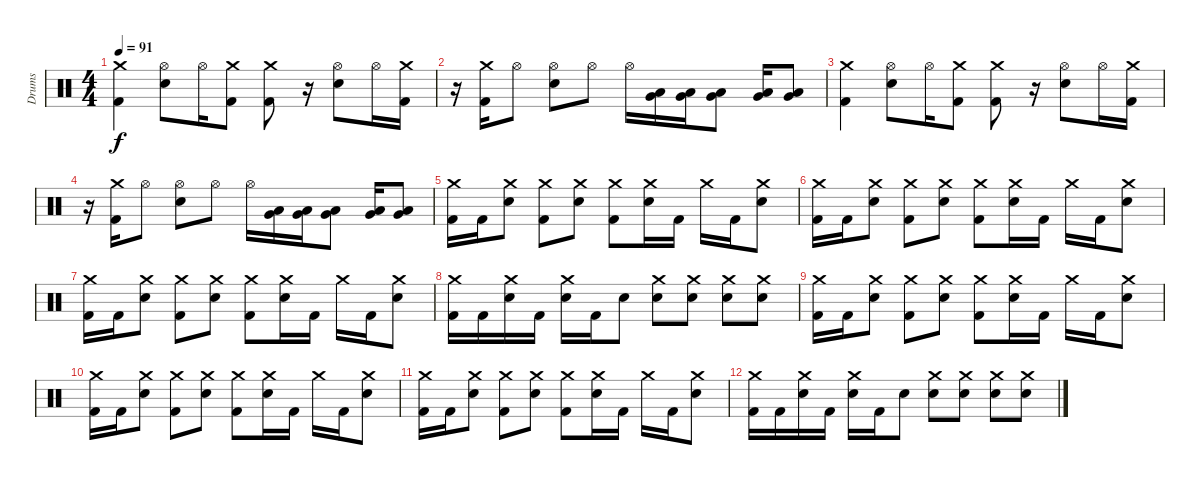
\track ("Drums" "Drums") {instrument percussion}
\staff {score}
\articulation defaults
\ts (4 4)
\tempo 91
\clef neutral
\ks c
("Crash medium (hit)" "Kick (hit) 2").4{dy f} ("Hi-Hat (open)" "Snare (hit) 2").8 "Hi-Hat (open)".16 ("Crash medium (hit)" "Kick (hit) 2").8 ("Crash medium (hit)" "Kick (hit) 2").8 r.16 ("Hi-Hat (open)" "Snare (hit) 2").8 "Hi-Hat (open)".16 ("Crash medium (hit)" "Kick (hit) 2").16 |
r.16 ("Crash medium (hit)" "Kick (hit) 2").16 "Hi-Hat (open)".8 ("Hi-Hat (open)" "Snare (hit) 2").8 "Hi-Hat (open)".8 "Hi-Hat (open)".16 ("Low Tom (hit)" "Very Low Tom (hit)").16 ("Low Tom (hit)" "Very Low Tom (hit)").16 ("Low Tom (hit)" "Very Low Tom (hit)").8 ("Low Tom (hit)" "Very Low Tom (hit)").16 ("Low Tom (hit)" "Very Low Tom (hit)").8 |
("Crash medium (hit)" "Kick (hit) 2").4 ("Hi-Hat (open)" "Snare (hit) 2").8 "Hi-Hat (open)".16 ("Crash medium (hit)" "Kick (hit) 2").8 ("Crash medium (hit)" "Kick (hit) 2").8 r.16 ("Hi-Hat (open)" "Snare (hit) 2").8 "Hi-Hat (open)".16 ("Crash medium (hit)" "Kick (hit) 2").16 |
r.16 ("Crash medium (hit)" "Kick (hit) 2").16 "Hi-Hat (open)".8 ("Hi-Hat (open)" "Snare (hit) 2").8 "Hi-Hat (open)".8 "Hi-Hat (open)".16 ("Low Tom (hit)" "Very Low Tom (hit)").16 ("Low Tom (hit)" "Very Low Tom (hit)").16 ("Low Tom (hit)" "Very Low Tom (hit)").8 ("Low Tom (hit)" "Very Low Tom (hit)").16 ("Low Tom (hit)" "Very Low Tom (hit)").8 |
("Crash medium (hit)" "Kick (hit) 2").16 "Kick (hit) 2".16 ("Crash medium (hit)" "Snare (hit) 2").8 ("Crash medium (hit)" "Kick (hit) 2").8 ("Crash medium (hit)" "Snare (hit) 2").8 ("Crash medium (hit)" "Kick (hit) 2").8 ("Crash medium (hit)" "Snare (hit) 2").16 "Kick (hit) 2".16 "Crash medium (hit)".16 "Kick (hit) 2".16 ("Crash medium (hit)" "Snare (hit) 2").8 |
("Crash medium (hit)" "Kick (hit) 2").16 "Kick (hit) 2".16 ("Crash medium (hit)" "Snare (hit) 2").8 ("Crash medium (hit)" "Kick (hit) 2").8 ("Crash medium (hit)" "Snare (hit) 2").8 ("Crash medium (hit)" "Kick (hit) 2").8 ("Crash medium (hit)" "Snare (hit) 2").16 "Kick (hit) 2".16 "Crash medium (hit)".16 "Kick (hit) 2".16 ("Crash medium (hit)" "Snare (hit) 2").8 |
("Crash medium (hit)" "Kick (hit) 2").16 "Kick (hit) 2".16 ("Crash medium (hit)" "Snare (hit) 2").8 ("Crash medium (hit)" "Kick (hit) 2").8 ("Crash medium (hit)" "Snare (hit) 2").8 ("Crash medium (hit)" "Kick (hit) 2").8 ("Crash medium (hit)" "Snare (hit) 2").16 "Kick (hit) 2".16 "Crash medium (hit)".16 "Kick (hit) 2".16 ("Crash medium (hit)" "Snare (hit) 2").8 |
("Crash medium (hit)" "Kick (hit) 2").16 "Kick (hit) 2".16 ("Crash medium (hit)" "Snare (hit) 2").16 "Kick (hit) 2".16 ("Crash medium (hit)" "Snare (hit) 2").16 "Kick (hit) 2".16 "Snare (hit) 2".8 ("Crash medium (hit)" "Snare (hit) 2").8 ("Crash medium (hit)" "Snare (hit) 2").8 ("Crash medium (hit)" "Snare (hit) 2").8 ("Crash medium (hit)" "Snare (hit) 2").8 |
("Crash medium (hit)" "Kick (hit) 2").16 "Kick (hit) 2".16 ("Crash medium (hit)" "Snare (hit) 2").8 ("Crash medium (hit)" "Kick (hit) 2").8 ("Crash medium (hit)" "Snare (hit) 2").8 ("Crash medium (hit)" "Kick (hit) 2").8 ("Crash medium (hit)" "Snare (hit) 2").16 "Kick (hit) 2".16 "Crash medium (hit)".16 "Kick (hit) 2".16 ("Crash medium (hit)" "Snare (hit) 2").8 |
("Crash medium (hit)" "Kick (hit) 2").16 "Kick (hit) 2".16 ("Crash medium (hit)" "Snare (hit) 2").8 ("Crash medium (hit)" "Kick (hit) 2").8 ("Crash medium (hit)" "Snare (hit) 2").8 ("Crash medium (hit)" "Kick (hit) 2").8 ("Crash medium (hit)" "Snare (hit) 2").16 "Kick (hit) 2".16 "Crash medium (hit)".16 "Kick (hit) 2".16 ("Crash medium (hit)" "Snare (hit) 2").8 |
("Crash medium (hit)" "Kick (hit) 2").16 "Kick (hit) 2".16 ("Crash medium (hit)" "Snare (hit) 2").8 ("Crash medium (hit)" "Kick (hit) 2").8 ("Crash medium (hit)" "Snare (hit) 2").8 ("Crash medium (hit)" "Kick (hit) 2").8 ("Crash medium (hit)" "Snare (hit) 2").16 "Kick (hit) 2".16 "Crash medium (hit)".16 "Kick (hit) 2".16 ("Crash medium (hit)" "Snare (hit) 2").8 |
("Crash medium (hit)" "Kick (hit) 2").16 "Kick (hit) 2".16 ("Crash medium (hit)" "Snare (hit) 2").16 "Kick (hit) 2".16 ("Crash medium (hit)" "Snare (hit) 2").16 "Kick (hit) 2".16 "Snare (hit) 2".8 ("Crash medium (hit)" "Snare (hit) 2").8 ("Crash medium (hit)" "Snare (hit) 2").8 ("Crash medium (hit)" "Snare (hit) 2").8 ("Crash medium (hit)" "Snare (hit) 2").8
